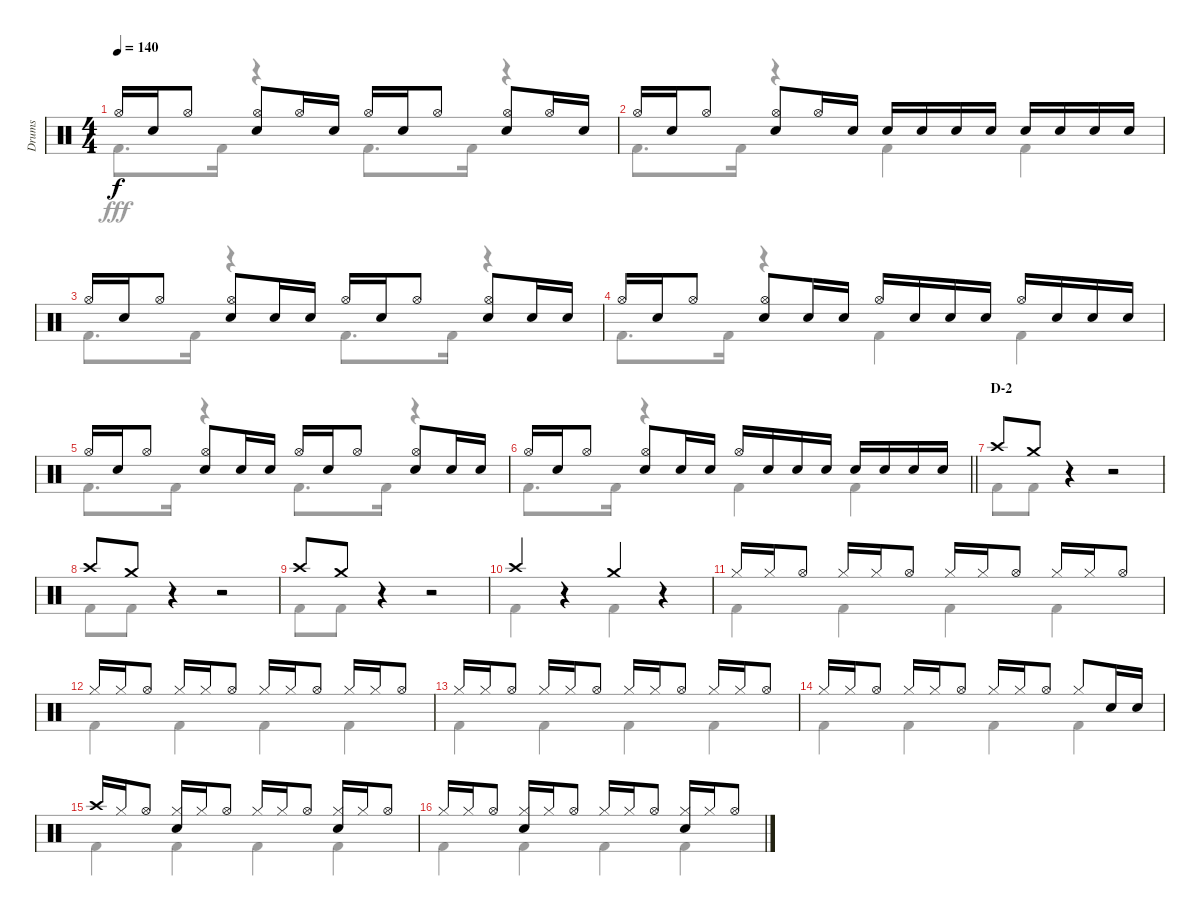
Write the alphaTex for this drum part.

\track ("Drums" "Drums") {instrument percussion}
\staff {score}
\articulation defaults
\voice
\ts (4 4)
\tempo 140
\clef neutral
\ks c "Hi-Hat (open)".16{dy f} "Snare (hit) 2".16 "Hi-Hat (open)".8
("Hi-Hat (open)" "Snare (hit) 2").8 "Hi-Hat (open)".16 "Snare (hit) 2".16 "Hi-Hat (open)".16 "Snare (hit) 2".16 "Hi-Hat (open)".8 ("Hi-Hat (open)" "Snare (hit) 2").8 "Hi-Hat (open)".16 "Snare (hit) 2".16 |
"Hi-Hat (open)".16 "Snare (hit) 2".16 "Hi-Hat (open)".8 ("Hi-Hat (open)" "Snare (hit) 2").8 "Hi-Hat (open)".16 "Snare (hit) 2".16 "Snare (hit) 2".16 "Snare (hit) 2".16 "Snare (hit) 2".16 "Snare (hit) 2".16 "Snare (hit) 2".16 "Snare (hit) 2".16 "Snare (hit) 2".16 "Snare (hit) 2".16 |
"Hi-Hat (open)".16 "Snare (hit) 2".16 "Hi-Hat (open)".8 ("Hi-Hat (open)" "Snare (hit) 2").8 "Snare (hit) 2".16 "Snare (hit) 2".16 "Hi-Hat (open)".16 "Snare (hit) 2".16 "Hi-Hat (open)".8 ("Hi-Hat (open)" "Snare (hit) 2").8 "Snare (hit) 2".16 "Snare (hit) 2".16 |
"Hi-Hat (open)".16 "Snare (hit) 2".16 "Hi-Hat (open)".8 ("Hi-Hat (open)" "Snare (hit) 2").8 "Snare (hit) 2".16 "Snare (hit) 2".16 "Hi-Hat (open)".16 "Snare (hit) 2".16 "Snare (hit) 2".16 "Snare (hit) 2".16 "Hi-Hat (open)".16 "Snare (hit) 2".16 "Snare (hit) 2".16 "Snare (hit) 2".16 |
"Hi-Hat (open)".16 "Snare (hit) 2".16 "Hi-Hat (open)".8 ("Hi-Hat (open)" "Snare (hit) 2").8 "Snare (hit) 2".16 "Snare (hit) 2".16 "Hi-Hat (open)".16 "Snare (hit) 2".16 "Hi-Hat (open)".8 ("Hi-Hat (open)" "Snare (hit) 2").8 "Snare (hit) 2".16 "Snare (hit) 2".16 |
\barLineRight lightlight "Hi-Hat (open)".16 "Snare (hit) 2".16 "Hi-Hat (open)".8
("Hi-Hat (open)" "Snare (hit) 2").8 "Snare (hit) 2".16 "Snare (hit) 2".16 "Hi-Hat (open)".16 "Snare (hit) 2".16 "Snare (hit) 2".16 "Snare (hit) 2".16 "Snare (hit) 2".16 "Snare (hit) 2".16 "Snare (hit) 2".16 "Snare (hit) 2".16 |
\section ("" "D-2")
"Crash high (hit)".8 "Crash medium (hit)".8 r.4 r.2 |
"Crash high (hit)".8 "Crash medium (hit)".8 r.4 r.2 |
"Crash high (hit)".8 "Crash medium (hit)".8 r.4 r.2 |
"Crash high (hit)".4 r.4 "Crash medium (hit)".4 r.4 |
"Hi-Hat (closed)".16 "Hi-Hat (closed)".16 "Hi-Hat (open)".8 "Hi-Hat (closed)".16 "Hi-Hat (closed)".16 "Hi-Hat (open)".8 "Hi-Hat (closed)".16 "Hi-Hat (closed)".16 "Hi-Hat (open)".8 "Hi-Hat (closed)".16 "Hi-Hat (closed)".16 "Hi-Hat (open)".8 |
"Hi-Hat (closed)".16 "Hi-Hat (closed)".16 "Hi-Hat (open)".8 "Hi-Hat (closed)".16 "Hi-Hat (closed)".16 "Hi-Hat (open)".8 "Hi-Hat (closed)".16 "Hi-Hat (closed)".16 "Hi-Hat (open)".8 "Hi-Hat (closed)".16 "Hi-Hat (closed)".16 "Hi-Hat (open)".8 |
"Hi-Hat (closed)".16 "Hi-Hat (closed)".16 "Hi-Hat (open)".8 "Hi-Hat (closed)".16 "Hi-Hat (closed)".16 "Hi-Hat (open)".8 "Hi-Hat (closed)".16 "Hi-Hat (closed)".16 "Hi-Hat (open)".8 "Hi-Hat (closed)".16 "Hi-Hat (closed)".16 "Hi-Hat (open)".8 |
"Hi-Hat (closed)".16 "Hi-Hat (closed)".16 "Hi-Hat (open)".8 "Hi-Hat (closed)".16 "Hi-Hat (closed)".16 "Hi-Hat (open)".8 "Hi-Hat (closed)".16 "Hi-Hat (closed)".16 "Hi-Hat (open)".8 "Hi-Hat (closed)".8 "Snare (hit) 2".16 "Snare (hit) 2".16 |
"Crash high (hit)".16 "Hi-Hat (closed)".16 "Hi-Hat (open)".8 ("Hi-Hat (closed)" "Snare (hit) 2").16 "Hi-Hat (closed)".16 "Hi-Hat (open)".8 "Hi-Hat (closed)".16 "Hi-Hat (closed)".16 "Hi-Hat (open)".8 ("Hi-Hat (closed)" "Snare (hit) 2").16 "Hi-Hat (closed)".16 "Hi-Hat (open)".8 |
"Hi-Hat (closed)".16 "Hi-Hat (closed)".16 "Hi-Hat (open)".8 ("Hi-Hat (closed)" "Snare (hit) 2").16 "Hi-Hat (closed)".16 "Hi-Hat (open)".8 "Hi-Hat (closed)".16 "Hi-Hat (closed)".16 "Hi-Hat (open)".8 ("Hi-Hat (closed)" "Snare (hit) 2").16 "Hi-Hat (closed)".16 "Hi-Hat (open)".8
\voice
\clef neutral
\ottava regular
\simile none
\ks c "Kick (hit) 2".8{d dy fff} "Kick (hit) 2".16
r.4 "Kick (hit) 2".8{d} "Kick (hit) 2".16 r.4 |
"Kick (hit) 2".8{d} "Kick (hit) 2".16 r.4 "Kick (hit) 2".4 "Kick (hit) 2".4 |
"Kick (hit) 2".8{d} "Kick (hit) 2".16 r.4 "Kick (hit) 2".8{d} "Kick (hit) 2".16 r.4 |
"Kick (hit) 2".8{d} "Kick (hit) 2".16 r.4 "Kick (hit) 2".4 "Kick (hit) 2".4 |
"Kick (hit) 2".8{d} "Kick (hit) 2".16 r.4 "Kick (hit) 2".8{d} "Kick (hit) 2".16 r.4 |
\barLineRight lightlight "Kick (hit) 2".8{d} "Kick (hit) 2".16
r.4 "Kick (hit) 2".4 "Kick (hit) 2".4 |
"Kick (hit) 2".8 "Kick (hit) 2".8 r.4 r.2 |
"Kick (hit) 2".8 "Kick (hit) 2".8 r.4 r.2 |
"Kick (hit) 2".8 "Kick (hit) 2".8 r.4 r.2 |
"Kick (hit) 2".4 r.4 "Kick (hit) 2".4 r.4 |
"Kick (hit) 2".4 "Kick (hit) 2".4 "Kick (hit) 2".4 "Kick (hit) 2".4 |
"Kick (hit) 2".4 "Kick (hit) 2".4 "Kick (hit) 2".4 "Kick (hit) 2".4 |
"Kick (hit) 2".4 "Kick (hit) 2".4 "Kick (hit) 2".4 "Kick (hit) 2".4 |
"Kick (hit) 2".4 "Kick (hit) 2".4 "Kick (hit) 2".4 "Kick (hit) 2".4 |
"Kick (hit) 2".4 "Kick (hit) 2".4 "Kick (hit) 2".4 "Kick (hit) 2".4 |
"Kick (hit) 2".4 "Kick (hit) 2".4 "Kick (hit) 2".4 "Kick (hit) 2".4
